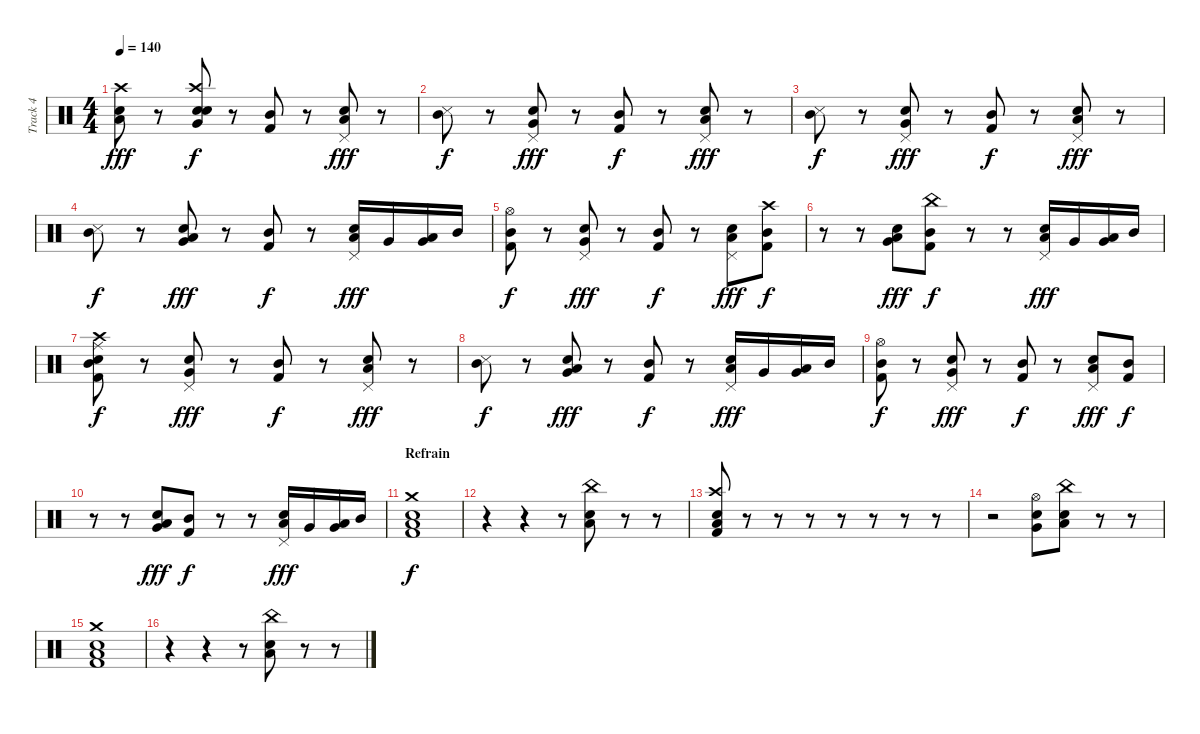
\track ("Track 4" "Track 4") {instrument percussion}
\staff {score}
\articulation defaults
\ts (4 4)
\tempo 140
\clef neutral
\ks c
("Electric Snare (hit)" "Low Tom (hit)" "Crash high (hit)").8{dy fff} r.8 ("Electric Snare (hit)" "Snare (hit) 2" "Very Low Tom (hit)" "Crash high (hit)").8{dy f} r.8 ("Mid Tom (hit)" "Kick (hit) 2").8 r.8 ("Low Tom (hit)" "Electric Snare (hit)" "Pedal Hi-Hat (hit)").8{dy fff} r.8 |
("Mid Tom (hit)" "Snare (side stick) 3").8{dy f} r.8 ("Pedal Hi-Hat (hit)" "Snare (hit) 2" "Very Low Tom (hit)").8{dy fff} r.8 ("Mid Tom (hit)" "Kick (hit) 2").8{dy f} r.8 ("Low Tom (hit)" "Electric Snare (hit)" "Pedal Hi-Hat (hit)").8{dy fff} r.8 |
("Mid Tom (hit)" "Snare (side stick) 3").8{dy f} r.8 ("Pedal Hi-Hat (hit)" "Snare (hit) 2" "Very Low Tom (hit)").8{dy fff} r.8 ("Mid Tom (hit)" "Kick (hit) 2").8{dy f} r.8 ("Low Tom (hit)" "Electric Snare (hit)" "Pedal Hi-Hat (hit)").8{dy fff} r.8 |
("Mid Tom (hit)" "Snare (side stick) 3").8{dy f} r.8 ("Snare (hit) 2" "Low Tom (hit)" "Very Low Tom (hit)").8{dy fff} r.8 ("Mid Tom (hit)" "Kick (hit) 2").8{dy f} r.8 ("Low Tom (hit)" "Pedal Hi-Hat (hit)" "Electric Snare (hit)").16{dy fff} "Very Low Tom (hit)".16 ("Very Low Tom (hit)" "Low Tom (hit)").16 "Mid Tom (hit)".16 |
("Mid Tom (hit)" "Kick (hit) 2" "Hi-Hat (open)").8{dy f} r.8 ("Pedal Hi-Hat (hit)" "Snare (hit) 2" "Very Low Tom (hit)").8{dy fff} r.8 ("Mid Tom (hit)" "Kick (hit) 2").8{dy f} r.8 ("Low Tom (hit)" "Electric Snare (hit)" "Pedal Hi-Hat (hit)").8{dy fff} ("Mid Tom (hit)" "Kick (hit) 2" "Crash high (hit)").8{dy f} |
r.8 r.8 ("Snare (hit) 2" "Low Tom (hit)" "Very Low Tom (hit)").8{dy fff} ("Mid Tom (hit)" "Kick (hit) 2" "China (hit)").8{dy f} r.8 r.8 ("Low Tom (hit)" "Pedal Hi-Hat (hit)" "Electric Snare (hit)").16{dy fff} "Very Low Tom (hit)".16 ("Very Low Tom (hit)" "Low Tom (hit)").16 "Mid Tom (hit)".16 |
("Mid Tom (hit)" "Kick (hit) 2" "Snare (hit) 2" "Ride (middle)" "Crash high (hit)").8{dy f} r.8 ("Pedal Hi-Hat (hit)" "Snare (hit) 2" "Very Low Tom (hit)").8{dy fff} r.8 ("Mid Tom (hit)" "Kick (hit) 2").8{dy f} r.8 ("Low Tom (hit)" "Electric Snare (hit)" "Pedal Hi-Hat (hit)").8{dy fff} r.8 |
("Mid Tom (hit)" "Snare (side stick) 3").8{dy f} r.8 ("Snare (hit) 2" "Low Tom (hit)" "Very Low Tom (hit)").8{dy fff} r.8 ("Mid Tom (hit)" "Kick (hit) 2").8{dy f} r.8 ("Low Tom (hit)" "Pedal Hi-Hat (hit)" "Electric Snare (hit)").16{dy fff} "Very Low Tom (hit)".16 ("Very Low Tom (hit)" "Low Tom (hit)").16 "Mid Tom (hit)".16 |
("Mid Tom (hit)" "Kick (hit) 2" "Hi-Hat (open)").8{dy f} r.8 ("Pedal Hi-Hat (hit)" "Snare (hit) 2" "Very Low Tom (hit)").8{dy fff} r.8 ("Mid Tom (hit)" "Kick (hit) 2").8{dy f} r.8 ("Low Tom (hit)" "Electric Snare (hit)" "Pedal Hi-Hat (hit)").8{dy fff} ("Mid Tom (hit)" "Kick (hit) 2").8{dy f} |
r.8 r.8 ("Snare (hit) 2" "Low Tom (hit)" "Very Low Tom (hit)").8{dy fff} ("Mid Tom (hit)" "Kick (hit) 2").8{dy f} r.8 r.8 ("Low Tom (hit)" "Pedal Hi-Hat (hit)" "Electric Snare (hit)").16{dy fff} "Very Low Tom (hit)".16 ("Very Low Tom (hit)" "Low Tom (hit)").16 "Mid Tom (hit)".16 |
\section ("" "Refrain")
("Low Tom (hit)" "Kick (hit) 2" "Snare (hit) 2" "Crash medium (hit)").1{dy f} |
r.4 r.4 r.8 ("Low Floor Tom (hit)" "Snare (hit) 2" "China (hit)").8 r.8 r.8 |
("Low Tom (hit)" "Snare (hit) 2" "Crash high (hit)" "Kick (hit) 2").8 r.8 r.8 r.8 r.8 r.8 r.8 r.8 |
r.2 ("Very Low Tom (hit)" "Electric Snare (hit)" "Hi-Hat (open)").8 ("Low Floor Tom (hit)" "Snare (hit) 2" "China (hit)").8 r.8 r.8 |
("Low Tom (hit)" "Kick (hit) 2" "Snare (hit) 2" "Crash medium (hit)").1 |
r.4 r.4 r.8 ("Low Floor Tom (hit)" "Snare (hit) 2" "China (hit)").8 r.8 r.8
